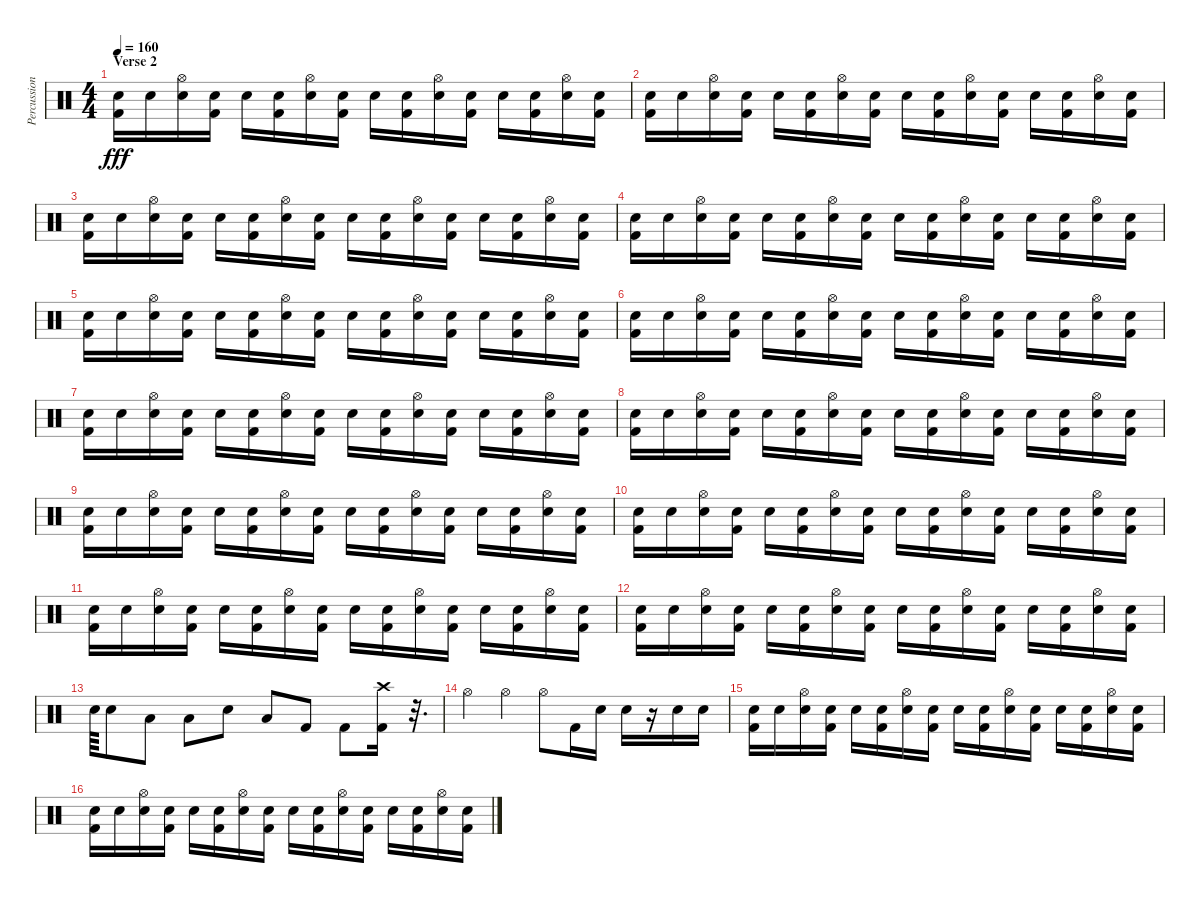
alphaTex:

\track ("Percussion" "Percussion") {instrument percussion}
\staff {score}
\articulation defaults
\ts (4 4)
\section ("" "Verse 2")
\tempo 160
\clef neutral
\ks c
("Snare (hit) 2" "Kick (hit) 2").16{dy fff volume 7} "Snare (hit) 2".16 ("Snare (hit) 2" "Hi-Hat (open)").16 ("Snare (hit) 2" "Kick (hit) 2").16 "Snare (hit) 2".16 ("Snare (hit) 2" "Kick (hit) 2").16 ("Snare (hit) 2" "Hi-Hat (open)").16 ("Snare (hit) 2" "Kick (hit) 2").16 "Snare (hit) 2".16 ("Snare (hit) 2" "Kick (hit) 2").16 ("Snare (hit) 2" "Hi-Hat (open)").16 ("Snare (hit) 2" "Kick (hit) 2").16 "Snare (hit) 2".16 ("Snare (hit) 2" "Kick (hit) 2").16 ("Snare (hit) 2" "Hi-Hat (open)").16 ("Snare (hit) 2" "Kick (hit) 2").16 |
("Snare (hit) 2" "Kick (hit) 2").16 "Snare (hit) 2".16 ("Snare (hit) 2" "Hi-Hat (open)").16 ("Snare (hit) 2" "Kick (hit) 2").16 "Snare (hit) 2".16 ("Snare (hit) 2" "Kick (hit) 2").16 ("Snare (hit) 2" "Hi-Hat (open)").16 ("Snare (hit) 2" "Kick (hit) 2").16 "Snare (hit) 2".16 ("Snare (hit) 2" "Kick (hit) 2").16 ("Snare (hit) 2" "Hi-Hat (open)").16 ("Snare (hit) 2" "Kick (hit) 2").16 "Snare (hit) 2".16 ("Snare (hit) 2" "Kick (hit) 2").16 ("Snare (hit) 2" "Hi-Hat (open)").16 ("Snare (hit) 2" "Kick (hit) 2").16 |
("Snare (hit) 2" "Kick (hit) 2").16 "Snare (hit) 2".16 ("Snare (hit) 2" "Hi-Hat (open)").16 ("Snare (hit) 2" "Kick (hit) 2").16 "Snare (hit) 2".16 ("Snare (hit) 2" "Kick (hit) 2").16 ("Snare (hit) 2" "Hi-Hat (open)").16 ("Snare (hit) 2" "Kick (hit) 2").16 "Snare (hit) 2".16 ("Snare (hit) 2" "Kick (hit) 2").16 ("Snare (hit) 2" "Hi-Hat (open)").16 ("Snare (hit) 2" "Kick (hit) 2").16 "Snare (hit) 2".16 ("Snare (hit) 2" "Kick (hit) 2").16 ("Snare (hit) 2" "Hi-Hat (open)").16 ("Snare (hit) 2" "Kick (hit) 2").16 |
("Snare (hit) 2" "Kick (hit) 2").16 "Snare (hit) 2".16 ("Snare (hit) 2" "Hi-Hat (open)").16 ("Snare (hit) 2" "Kick (hit) 2").16 "Snare (hit) 2".16 ("Snare (hit) 2" "Kick (hit) 2").16 ("Snare (hit) 2" "Hi-Hat (open)").16 ("Snare (hit) 2" "Kick (hit) 2").16 "Snare (hit) 2".16 ("Snare (hit) 2" "Kick (hit) 2").16 ("Snare (hit) 2" "Hi-Hat (open)").16 ("Snare (hit) 2" "Kick (hit) 2").16 "Snare (hit) 2".16 ("Snare (hit) 2" "Kick (hit) 2").16 ("Snare (hit) 2" "Hi-Hat (open)").16 ("Snare (hit) 2" "Kick (hit) 2").16 |
("Snare (hit) 2" "Kick (hit) 2").16 "Snare (hit) 2".16 ("Snare (hit) 2" "Hi-Hat (open)").16 ("Snare (hit) 2" "Kick (hit) 2").16 "Snare (hit) 2".16 ("Snare (hit) 2" "Kick (hit) 2").16 ("Snare (hit) 2" "Hi-Hat (open)").16 ("Snare (hit) 2" "Kick (hit) 2").16 "Snare (hit) 2".16 ("Snare (hit) 2" "Kick (hit) 2").16 ("Snare (hit) 2" "Hi-Hat (open)").16 ("Snare (hit) 2" "Kick (hit) 2").16 "Snare (hit) 2".16 ("Snare (hit) 2" "Kick (hit) 2").16 ("Snare (hit) 2" "Hi-Hat (open)").16 ("Snare (hit) 2" "Kick (hit) 2").16 |
("Snare (hit) 2" "Kick (hit) 2").16 "Snare (hit) 2".16 ("Snare (hit) 2" "Hi-Hat (open)").16 ("Snare (hit) 2" "Kick (hit) 2").16 "Snare (hit) 2".16 ("Snare (hit) 2" "Kick (hit) 2").16 ("Snare (hit) 2" "Hi-Hat (open)").16 ("Snare (hit) 2" "Kick (hit) 2").16 "Snare (hit) 2".16 ("Snare (hit) 2" "Kick (hit) 2").16 ("Snare (hit) 2" "Hi-Hat (open)").16 ("Snare (hit) 2" "Kick (hit) 2").16 "Snare (hit) 2".16 ("Snare (hit) 2" "Kick (hit) 2").16 ("Snare (hit) 2" "Hi-Hat (open)").16 ("Snare (hit) 2" "Kick (hit) 2").16 |
("Snare (hit) 2" "Kick (hit) 2").16 "Snare (hit) 2".16 ("Snare (hit) 2" "Hi-Hat (open)").16 ("Snare (hit) 2" "Kick (hit) 2").16 "Snare (hit) 2".16 ("Snare (hit) 2" "Kick (hit) 2").16 ("Snare (hit) 2" "Hi-Hat (open)").16 ("Snare (hit) 2" "Kick (hit) 2").16 "Snare (hit) 2".16 ("Snare (hit) 2" "Kick (hit) 2").16 ("Snare (hit) 2" "Hi-Hat (open)").16 ("Snare (hit) 2" "Kick (hit) 2").16 "Snare (hit) 2".16 ("Snare (hit) 2" "Kick (hit) 2").16 ("Snare (hit) 2" "Hi-Hat (open)").16 ("Snare (hit) 2" "Kick (hit) 2").16 |
("Snare (hit) 2" "Kick (hit) 2").16 "Snare (hit) 2".16 ("Snare (hit) 2" "Hi-Hat (open)").16 ("Snare (hit) 2" "Kick (hit) 2").16 "Snare (hit) 2".16 ("Snare (hit) 2" "Kick (hit) 2").16 ("Snare (hit) 2" "Hi-Hat (open)").16 ("Snare (hit) 2" "Kick (hit) 2").16 "Snare (hit) 2".16 ("Snare (hit) 2" "Kick (hit) 2").16 ("Snare (hit) 2" "Hi-Hat (open)").16 ("Snare (hit) 2" "Kick (hit) 2").16 "Snare (hit) 2".16 ("Snare (hit) 2" "Kick (hit) 2").16 ("Snare (hit) 2" "Hi-Hat (open)").16 ("Snare (hit) 2" "Kick (hit) 2").16 |
("Snare (hit) 2" "Kick (hit) 2").16 "Snare (hit) 2".16 ("Snare (hit) 2" "Hi-Hat (open)").16 ("Snare (hit) 2" "Kick (hit) 2").16 "Snare (hit) 2".16 ("Snare (hit) 2" "Kick (hit) 2").16 ("Snare (hit) 2" "Hi-Hat (open)").16 ("Snare (hit) 2" "Kick (hit) 2").16 "Snare (hit) 2".16 ("Snare (hit) 2" "Kick (hit) 2").16 ("Snare (hit) 2" "Hi-Hat (open)").16 ("Snare (hit) 2" "Kick (hit) 2").16 "Snare (hit) 2".16 ("Snare (hit) 2" "Kick (hit) 2").16 ("Snare (hit) 2" "Hi-Hat (open)").16 ("Snare (hit) 2" "Kick (hit) 2").16 |
("Snare (hit) 2" "Kick (hit) 2").16 "Snare (hit) 2".16 ("Snare (hit) 2" "Hi-Hat (open)").16 ("Snare (hit) 2" "Kick (hit) 2").16 "Snare (hit) 2".16 ("Snare (hit) 2" "Kick (hit) 2").16 ("Snare (hit) 2" "Hi-Hat (open)").16 ("Snare (hit) 2" "Kick (hit) 2").16 "Snare (hit) 2".16 ("Snare (hit) 2" "Kick (hit) 2").16 ("Snare (hit) 2" "Hi-Hat (open)").16 ("Snare (hit) 2" "Kick (hit) 2").16 "Snare (hit) 2".16 ("Snare (hit) 2" "Kick (hit) 2").16 ("Snare (hit) 2" "Hi-Hat (open)").16 ("Snare (hit) 2" "Kick (hit) 2").16 |
("Snare (hit) 2" "Kick (hit) 2").16 "Snare (hit) 2".16 ("Snare (hit) 2" "Hi-Hat (open)").16 ("Snare (hit) 2" "Kick (hit) 2").16 "Snare (hit) 2".16 ("Snare (hit) 2" "Kick (hit) 2").16 ("Snare (hit) 2" "Hi-Hat (open)").16 ("Snare (hit) 2" "Kick (hit) 2").16 "Snare (hit) 2".16 ("Snare (hit) 2" "Kick (hit) 2").16 ("Snare (hit) 2" "Hi-Hat (open)").16 ("Snare (hit) 2" "Kick (hit) 2").16 "Snare (hit) 2".16 ("Snare (hit) 2" "Kick (hit) 2").16 ("Snare (hit) 2" "Hi-Hat (open)").16 ("Snare (hit) 2" "Kick (hit) 2").16 |
("Snare (hit) 2" "Kick (hit) 2").16 "Snare (hit) 2".16 ("Snare (hit) 2" "Hi-Hat (open)").16 ("Snare (hit) 2" "Kick (hit) 2").16 "Snare (hit) 2".16 ("Snare (hit) 2" "Kick (hit) 2").16 ("Snare (hit) 2" "Hi-Hat (open)").16 ("Snare (hit) 2" "Kick (hit) 2").16 "Snare (hit) 2".16 ("Snare (hit) 2" "Kick (hit) 2").16 ("Snare (hit) 2" "Hi-Hat (open)").16 ("Snare (hit) 2" "Kick (hit) 2").16 "Snare (hit) 2".16 ("Snare (hit) 2" "Kick (hit) 2").16 ("Snare (hit) 2" "Hi-Hat (open)").16 ("Snare (hit) 2" "Kick (hit) 2").16 |
"Snare (hit) 2".64 "Snare (hit) 2".8 "Low Tom (hit)".8 "Low Tom (hit)".8 "Snare (hit) 2".8 "Low Tom (hit)".8 "Kick (hit) 2".8 "Kick (hit) 2".8 ("Kick (hit) 2" "Crash high (hit)").16 r.32{d} |
"Hi-Hat (open)".4 "Hi-Hat (open)".4 "Hi-Hat (open)".8 "Kick (hit) 2".16 "Snare (hit) 2".16 "Snare (hit) 2".16 r.16 "Snare (hit) 2".16 "Snare (hit) 2".16 |
("Snare (hit) 2" "Kick (hit) 2").16 "Snare (hit) 2".16 ("Snare (hit) 2" "Hi-Hat (open)").16 ("Snare (hit) 2" "Kick (hit) 2").16 "Snare (hit) 2".16 ("Snare (hit) 2" "Kick (hit) 2").16 ("Snare (hit) 2" "Hi-Hat (open)").16 ("Snare (hit) 2" "Kick (hit) 2").16 "Snare (hit) 2".16 ("Snare (hit) 2" "Kick (hit) 2").16 ("Snare (hit) 2" "Hi-Hat (open)").16 ("Snare (hit) 2" "Kick (hit) 2").16 "Snare (hit) 2".16 ("Snare (hit) 2" "Kick (hit) 2").16 ("Snare (hit) 2" "Hi-Hat (open)").16 ("Snare (hit) 2" "Kick (hit) 2").16 |
("Snare (hit) 2" "Kick (hit) 2").16 "Snare (hit) 2".16 ("Snare (hit) 2" "Hi-Hat (open)").16 ("Snare (hit) 2" "Kick (hit) 2").16 "Snare (hit) 2".16 ("Snare (hit) 2" "Kick (hit) 2").16 ("Snare (hit) 2" "Hi-Hat (open)").16 ("Snare (hit) 2" "Kick (hit) 2").16 "Snare (hit) 2".16 ("Snare (hit) 2" "Kick (hit) 2").16 ("Snare (hit) 2" "Hi-Hat (open)").16 ("Snare (hit) 2" "Kick (hit) 2").16 "Snare (hit) 2".16 ("Snare (hit) 2" "Kick (hit) 2").16 ("Snare (hit) 2" "Hi-Hat (open)").16 ("Snare (hit) 2" "Kick (hit) 2").16
